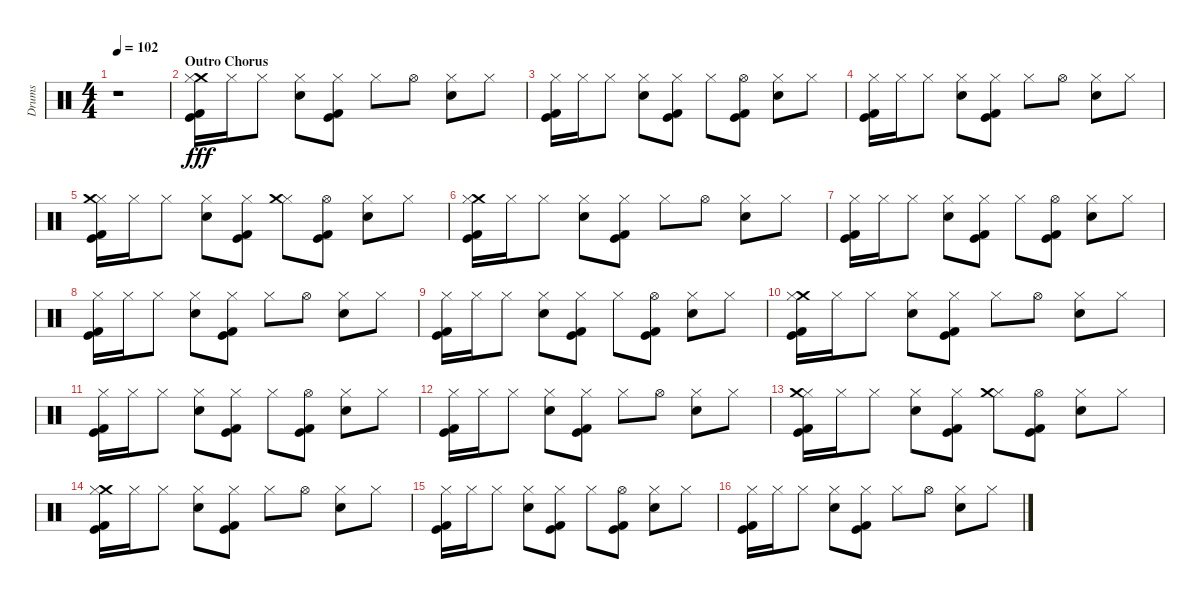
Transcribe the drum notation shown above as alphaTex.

\track ("Drums" "Drums") {instrument percussion}
\staff {score}
\articulation defaults
\ts (4 4)
\tempo 102
\clef neutral
\ks c
r.1{dy fff} |
\section ("" "Outro Chorus")
("Crash medium (hit)" "Kick (hit) 2" "Kick (hit)" "Hi-Hat (closed)").16 "Hi-Hat (closed)".16 "Hi-Hat (closed)".8 ("Hand Clap (hit)" "Hi-Hat (closed)").8 ("Kick (hit) 2" "Kick (hit)" "Hi-Hat (closed)").8 "Hi-Hat (closed)".8 "Hi-Hat (open)".8 ("Hand Clap (hit)" "Hi-Hat (closed)").8 "Hi-Hat (closed)".8 |
("Kick (hit) 2" "Kick (hit)" "Hi-Hat (closed)").16 "Hi-Hat (closed)".16 "Hi-Hat (closed)".8 ("Hand Clap (hit)" "Hi-Hat (closed)").8 ("Kick (hit) 2" "Kick (hit)" "Hi-Hat (closed)").8 "Hi-Hat (closed)".8 ("Kick (hit) 2" "Kick (hit)" "Hi-Hat (open)").8 ("Hand Clap (hit)" "Hi-Hat (closed)").8 "Hi-Hat (closed)".8 |
("Kick (hit) 2" "Kick (hit)" "Hi-Hat (closed)").16 "Hi-Hat (closed)".16 "Hi-Hat (closed)".8 ("Hand Clap (hit)" "Hi-Hat (closed)").8 ("Kick (hit) 2" "Kick (hit)" "Hi-Hat (closed)").8 "Hi-Hat (closed)".8 "Hi-Hat (open)".8 ("Hand Clap (hit)" "Hi-Hat (closed)").8 "Hi-Hat (closed)".8 |
("Kick (hit) 2" "Kick (hit)" "Hi-Hat (closed)" "Crash medium (hit)").16 "Hi-Hat (closed)".16 "Hi-Hat (closed)".8 ("Hand Clap (hit)" "Hi-Hat (closed)").8 ("Kick (hit) 2" "Kick (hit)" "Hi-Hat (closed)").8 ("Hi-Hat (closed)" "Crash medium (hit)").8 ("Kick (hit) 2" "Kick (hit)" "Hi-Hat (open)").8 ("Hand Clap (hit)" "Hi-Hat (closed)").8 "Hi-Hat (closed)".8 |
("Crash medium (hit)" "Kick (hit) 2" "Kick (hit)" "Hi-Hat (closed)").16 "Hi-Hat (closed)".16 "Hi-Hat (closed)".8 ("Hand Clap (hit)" "Hi-Hat (closed)").8 ("Kick (hit) 2" "Kick (hit)" "Hi-Hat (closed)").8 "Hi-Hat (closed)".8 "Hi-Hat (open)".8 ("Hand Clap (hit)" "Hi-Hat (closed)").8 "Hi-Hat (closed)".8 |
("Kick (hit) 2" "Kick (hit)" "Hi-Hat (closed)").16 "Hi-Hat (closed)".16 "Hi-Hat (closed)".8 ("Hand Clap (hit)" "Hi-Hat (closed)").8 ("Kick (hit) 2" "Kick (hit)" "Hi-Hat (closed)").8 "Hi-Hat (closed)".8 ("Kick (hit) 2" "Kick (hit)" "Hi-Hat (open)").8 ("Hand Clap (hit)" "Hi-Hat (closed)").8 "Hi-Hat (closed)".8 |
("Kick (hit) 2" "Kick (hit)" "Hi-Hat (closed)").16 "Hi-Hat (closed)".16 "Hi-Hat (closed)".8 ("Hand Clap (hit)" "Hi-Hat (closed)").8 ("Kick (hit) 2" "Kick (hit)" "Hi-Hat (closed)").8 "Hi-Hat (closed)".8 "Hi-Hat (open)".8 ("Hand Clap (hit)" "Hi-Hat (closed)").8 "Hi-Hat (closed)".8 |
("Kick (hit) 2" "Kick (hit)" "Hi-Hat (closed)").16 "Hi-Hat (closed)".16 "Hi-Hat (closed)".8 ("Hand Clap (hit)" "Hi-Hat (closed)").8 ("Kick (hit) 2" "Kick (hit)" "Hi-Hat (closed)").8 "Hi-Hat (closed)".8 ("Kick (hit) 2" "Kick (hit)" "Hi-Hat (open)").8 ("Hand Clap (hit)" "Hi-Hat (closed)").8 "Hi-Hat (closed)".8 |
("Crash medium (hit)" "Kick (hit) 2" "Kick (hit)" "Hi-Hat (closed)").16 "Hi-Hat (closed)".16 "Hi-Hat (closed)".8 ("Hand Clap (hit)" "Hi-Hat (closed)").8 ("Kick (hit) 2" "Kick (hit)" "Hi-Hat (closed)").8 "Hi-Hat (closed)".8 "Hi-Hat (open)".8 ("Hand Clap (hit)" "Hi-Hat (closed)").8 "Hi-Hat (closed)".8 |
("Kick (hit) 2" "Kick (hit)" "Hi-Hat (closed)").16 "Hi-Hat (closed)".16 "Hi-Hat (closed)".8 ("Hand Clap (hit)" "Hi-Hat (closed)").8 ("Kick (hit) 2" "Kick (hit)" "Hi-Hat (closed)").8 "Hi-Hat (closed)".8 ("Kick (hit) 2" "Kick (hit)" "Hi-Hat (open)").8 ("Hand Clap (hit)" "Hi-Hat (closed)").8 "Hi-Hat (closed)".8 |
("Kick (hit) 2" "Kick (hit)" "Hi-Hat (closed)").16 "Hi-Hat (closed)".16 "Hi-Hat (closed)".8 ("Hand Clap (hit)" "Hi-Hat (closed)").8 ("Kick (hit) 2" "Kick (hit)" "Hi-Hat (closed)").8 "Hi-Hat (closed)".8 "Hi-Hat (open)".8 ("Hand Clap (hit)" "Hi-Hat (closed)").8 "Hi-Hat (closed)".8 |
("Kick (hit) 2" "Kick (hit)" "Hi-Hat (closed)" "Crash medium (hit)").16 "Hi-Hat (closed)".16 "Hi-Hat (closed)".8 ("Hand Clap (hit)" "Hi-Hat (closed)").8 ("Kick (hit) 2" "Kick (hit)" "Hi-Hat (closed)").8 ("Hi-Hat (closed)" "Crash medium (hit)").8 ("Kick (hit) 2" "Kick (hit)" "Hi-Hat (open)").8 ("Hand Clap (hit)" "Hi-Hat (closed)").8 "Hi-Hat (closed)".8 |
("Crash medium (hit)" "Kick (hit) 2" "Kick (hit)" "Hi-Hat (closed)").16 "Hi-Hat (closed)".16 "Hi-Hat (closed)".8 ("Hand Clap (hit)" "Hi-Hat (closed)").8 ("Kick (hit) 2" "Kick (hit)" "Hi-Hat (closed)").8 "Hi-Hat (closed)".8 "Hi-Hat (open)".8 ("Hand Clap (hit)" "Hi-Hat (closed)").8 "Hi-Hat (closed)".8 |
("Kick (hit) 2" "Kick (hit)" "Hi-Hat (closed)").16 "Hi-Hat (closed)".16 "Hi-Hat (closed)".8 ("Hand Clap (hit)" "Hi-Hat (closed)").8 ("Kick (hit) 2" "Kick (hit)" "Hi-Hat (closed)").8 "Hi-Hat (closed)".8 ("Kick (hit) 2" "Kick (hit)" "Hi-Hat (open)").8 ("Hand Clap (hit)" "Hi-Hat (closed)").8 "Hi-Hat (closed)".8 |
("Kick (hit) 2" "Kick (hit)" "Hi-Hat (closed)").16 "Hi-Hat (closed)".16 "Hi-Hat (closed)".8 ("Hand Clap (hit)" "Hi-Hat (closed)").8 ("Kick (hit) 2" "Kick (hit)" "Hi-Hat (closed)").8 "Hi-Hat (closed)".8 "Hi-Hat (open)".8 ("Hand Clap (hit)" "Hi-Hat (closed)").8 "Hi-Hat (closed)".8
